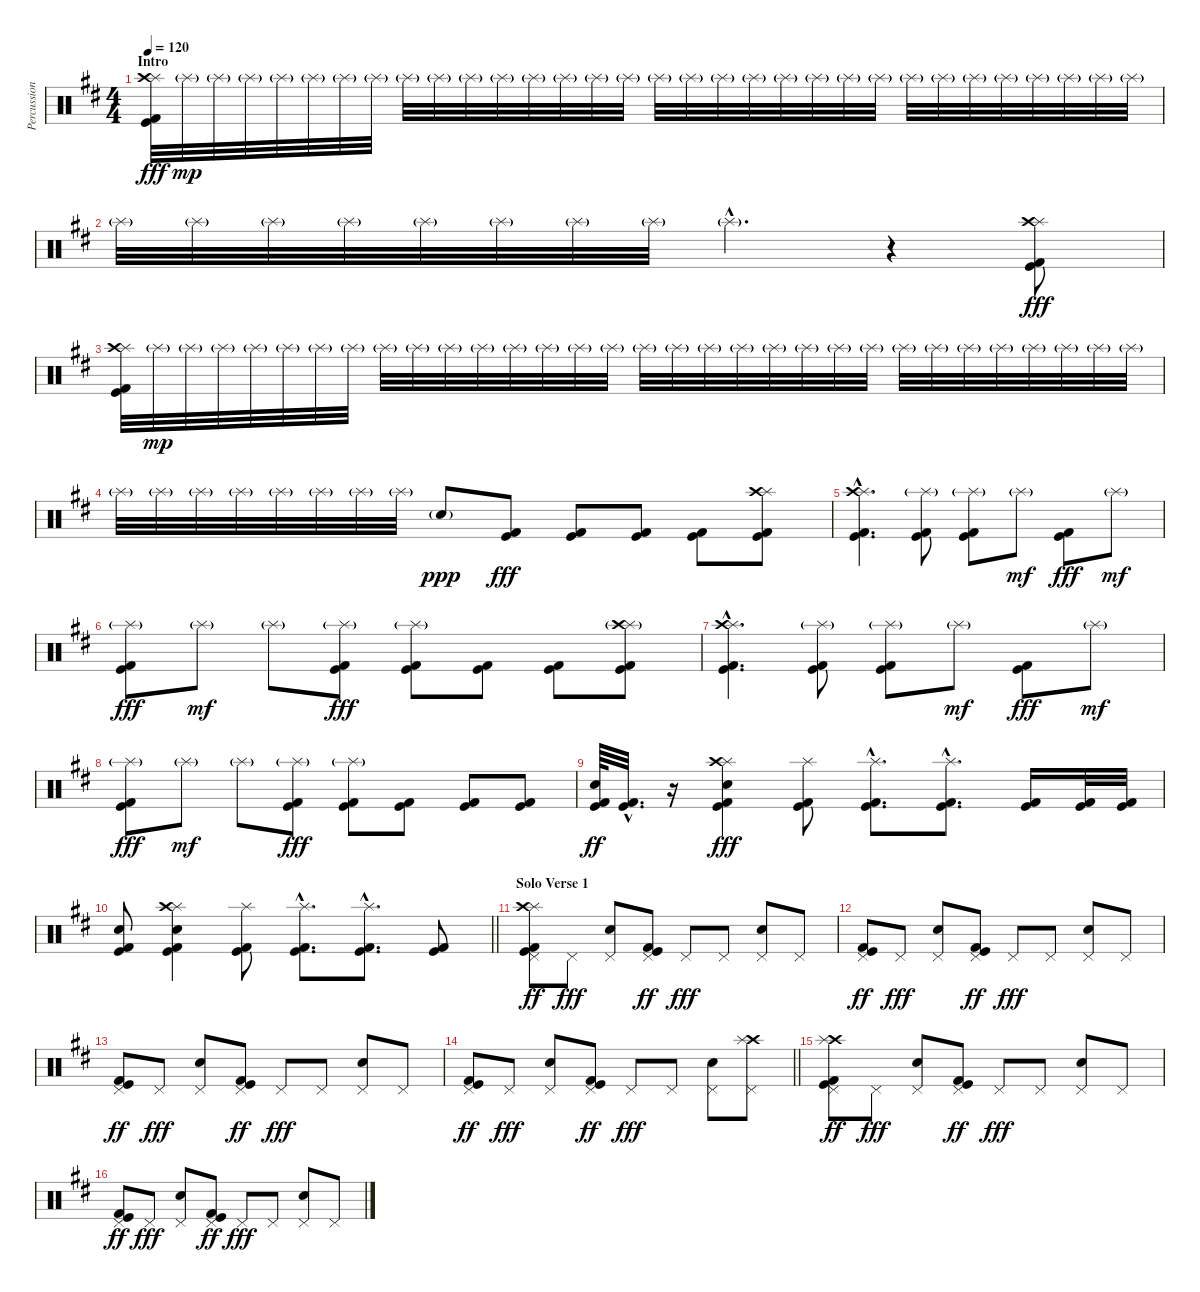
\track ("Percussion" "Percussion") {instrument percussion}
\staff {score}
\articulation defaults
\ts (4 4)
\section ("" "Intro")
\tempo 120
\clef neutral
\ks d
("Splash (hit)" "Crash high (hit)" "Kick (hit)" "Kick (hit) 2").32{dy fff} "Splash (hit)"{g}.32{dy mp} "Splash (hit)"{g}.32 "Splash (hit)"{g}.32 "Splash (hit)"{g}.32 "Splash (hit)"{g}.32 "Splash (hit)"{g}.32 "Splash (hit)"{g}.32 "Splash (hit)"{g}.32 "Splash (hit)"{g}.32 "Splash (hit)"{g}.32 "Splash (hit)"{g}.32 "Splash (hit)"{g}.32 "Splash (hit)"{g}.32 "Splash (hit)"{g}.32 "Splash (hit)"{g}.32 "Splash (hit)"{g}.32 "Splash (hit)"{g}.32 "Splash (hit)"{g}.32 "Splash (hit)"{g}.32 "Splash (hit)"{g}.32 "Splash (hit)"{g}.32 "Splash (hit)"{g}.32 "Splash (hit)"{g}.32 "Splash (hit)"{g}.32 "Splash (hit)"{g}.32 "Splash (hit)"{g}.32 "Splash (hit)"{g}.32 "Splash (hit)"{g}.32 "Splash (hit)"{g}.32 "Splash (hit)"{g}.32 "Splash (hit)"{g}.32 |
"Splash (hit)"{g}.32 "Splash (hit)"{g}.32 "Splash (hit)"{g}.32 "Splash (hit)"{g}.32 "Splash (hit)"{g}.32 "Splash (hit)"{g}.32 "Splash (hit)"{g}.32 "Splash (hit)"{g}.32 "Splash (hit)"{g hac}.4{d} r.4 ("Splash (hit)" "Crash high (hit)" "Kick (hit)" "Kick (hit) 2").8{dy fff} |
("Splash (hit)" "Crash high (hit)" "Kick (hit)" "Kick (hit) 2").32 "Splash (hit)"{g}.32{dy mp} "Splash (hit)"{g}.32 "Splash (hit)"{g}.32 "Splash (hit)"{g}.32 "Splash (hit)"{g}.32 "Splash (hit)"{g}.32 "Splash (hit)"{g}.32 "Splash (hit)"{g}.32 "Splash (hit)"{g}.32 "Splash (hit)"{g}.32 "Splash (hit)"{g}.32 "Splash (hit)"{g}.32 "Splash (hit)"{g}.32 "Splash (hit)"{g}.32 "Splash (hit)"{g}.32 "Splash (hit)"{g}.32 "Splash (hit)"{g}.32 "Splash (hit)"{g}.32 "Splash (hit)"{g}.32 "Splash (hit)"{g}.32 "Splash (hit)"{g}.32 "Splash (hit)"{g}.32 "Splash (hit)"{g}.32 "Splash (hit)"{g}.32 "Splash (hit)"{g}.32 "Splash (hit)"{g}.32 "Splash (hit)"{g}.32 "Splash (hit)"{g}.32 "Splash (hit)"{g}.32 "Splash (hit)"{g}.32 "Splash (hit)"{g}.32 |
"Splash (hit)"{g}.32 "Splash (hit)"{g}.32 "Splash (hit)"{g}.32 "Splash (hit)"{g}.32 "Splash (hit)"{g}.32 "Splash (hit)"{g}.32 "Splash (hit)"{g}.32 "Splash (hit)"{g}.32 "Snare (hit)"{g}.8{dy ppp} ("Kick (hit)" "Kick (hit) 2").8{dy fff} ("Kick (hit)" "Kick (hit) 2").8 ("Kick (hit)" "Kick (hit) 2").8 ("Kick (hit)" "Kick (hit) 2").8 ("Splash (hit)" "Crash high (hit)" "Kick (hit)" "Kick (hit) 2").8 |
("Splash (hit)"{hac} "Crash high (hit)"{hac} "Kick (hit)"{hac} "Kick (hit) 2"{hac}).4{d} ("Splash (hit)"{g} "Kick (hit)" "Kick (hit) 2").8 ("Splash (hit)"{g} "Kick (hit)" "Kick (hit) 2").8 "Splash (hit)"{g}.8{dy mf} ("Kick (hit)" "Kick (hit) 2").8{dy fff} "Splash (hit)"{g}.8{dy mf} |
("Splash (hit)"{g} "Kick (hit)" "Kick (hit) 2").8{dy fff} "Splash (hit)"{g}.8{dy mf} "Splash (hit)"{g}.8 ("Splash (hit)"{g} "Kick (hit)" "Kick (hit) 2").8{dy fff} ("Splash (hit)"{g} "Kick (hit)" "Kick (hit) 2").8 ("Kick (hit)" "Kick (hit) 2").8 ("Kick (hit)" "Kick (hit) 2").8 ("Splash (hit)"{g} "Crash high (hit)"{g} "Kick (hit)" "Kick (hit) 2").8 |
("Splash (hit)"{hac} "Crash high (hit)"{hac} "Kick (hit)"{hac} "Kick (hit) 2"{hac}).4{d} ("Splash (hit)"{g} "Kick (hit)" "Kick (hit) 2").8 ("Splash (hit)"{g} "Kick (hit)" "Kick (hit) 2").8 "Splash (hit)"{g}.8{dy mf} ("Kick (hit)" "Kick (hit) 2").8{dy fff} "Splash (hit)"{g}.8{dy mf} |
("Splash (hit)"{g} "Kick (hit)" "Kick (hit) 2").8{dy fff} "Splash (hit)"{g}.8{dy mf} "Splash (hit)"{g}.8 ("Splash (hit)"{g} "Kick (hit)" "Kick (hit) 2").8{dy fff} ("Splash (hit)"{g} "Kick (hit)" "Kick (hit) 2").8 ("Kick (hit)" "Kick (hit) 2").8 ("Kick (hit)" "Kick (hit) 2").8 ("Kick (hit)" "Kick (hit) 2").8 |
("Snare (hit) 2" "Kick (hit)" "Kick (hit) 2").64{dy ff} ("Kick (hit)"{hac} "Kick (hit) 2"{hac}).32{d} r.16 ("Splash (hit)" "Crash high (hit)" "Snare (hit) 2" "Kick (hit)" "Kick (hit) 2").4{dy fff} ("Splash (hit)" "Kick (hit)" "Kick (hit) 2").8 ("Splash (hit)"{hac} "Kick (hit)"{hac} "Kick (hit) 2"{hac}).8{d} ("Splash (hit)"{hac} "Kick (hit)"{hac} "Kick (hit) 2"{hac}).8{d} ("Kick (hit)" "Kick (hit) 2").16 ("Kick (hit)" "Kick (hit) 2").32 ("Kick (hit)" "Kick (hit) 2").32 |
\barLineRight lightlight
("Snare (hit) 2" "Kick (hit)" "Kick (hit) 2").8 ("Splash (hit)" "Crash high (hit)" "Snare (hit) 2" "Kick (hit)" "Kick (hit) 2").4 ("Splash (hit)" "Kick (hit)" "Kick (hit) 2").8 ("Splash (hit)"{hac} "Kick (hit)"{hac} "Kick (hit) 2"{hac}).8{d} ("Splash (hit)"{hac} "Kick (hit)"{hac} "Kick (hit) 2"{hac}).8{d} ("Kick (hit)" "Kick (hit) 2").8 |
\section ("" "Solo Verse 1")
("Splash (hit)" "Crash high (hit)" "Pedal Hi-Hat (hit)" "Kick (hit)" "Kick (hit) 2").8{dy ff} "Pedal Hi-Hat (hit)".8{dy fff} ("Snare (hit) 2" "Pedal Hi-Hat (hit)").8 ("Pedal Hi-Hat (hit)" "Kick (hit)" "Kick (hit) 2").8{dy ff} "Pedal Hi-Hat (hit)".8{dy fff} "Pedal Hi-Hat (hit)".8 ("Snare (hit) 2" "Pedal Hi-Hat (hit)").8 "Pedal Hi-Hat (hit)".8 |
("Pedal Hi-Hat (hit)" "Kick (hit)" "Kick (hit) 2").8{dy ff} "Pedal Hi-Hat (hit)".8{dy fff} ("Snare (hit) 2" "Pedal Hi-Hat (hit)").8 ("Pedal Hi-Hat (hit)" "Kick (hit)" "Kick (hit) 2").8{dy ff} "Pedal Hi-Hat (hit)".8{dy fff} "Pedal Hi-Hat (hit)".8 ("Snare (hit) 2" "Pedal Hi-Hat (hit)").8 "Pedal Hi-Hat (hit)".8 |
("Pedal Hi-Hat (hit)" "Kick (hit)" "Kick (hit) 2").8{dy ff} "Pedal Hi-Hat (hit)".8{dy fff} ("Snare (hit) 2" "Pedal Hi-Hat (hit)").8 ("Pedal Hi-Hat (hit)" "Kick (hit)" "Kick (hit) 2").8{dy ff} "Pedal Hi-Hat (hit)".8{dy fff} "Pedal Hi-Hat (hit)".8 ("Snare (hit) 2" "Pedal Hi-Hat (hit)").8 "Pedal Hi-Hat (hit)".8 |
\barLineRight lightlight
("Pedal Hi-Hat (hit)" "Kick (hit)" "Kick (hit) 2").8{dy ff} "Pedal Hi-Hat (hit)".8{dy fff} ("Snare (hit) 2" "Pedal Hi-Hat (hit)").8 ("Pedal Hi-Hat (hit)" "Kick (hit)" "Kick (hit) 2").8{dy ff} "Pedal Hi-Hat (hit)".8{dy fff} "Pedal Hi-Hat (hit)".8 ("Snare (hit) 2" "Pedal Hi-Hat (hit)").8 ("Crash high (hit)" "Splash (hit)" "Pedal Hi-Hat (hit)").8 |
("Crash high (hit)" "Splash (hit)" "Pedal Hi-Hat (hit)" "Kick (hit)" "Kick (hit) 2").8{dy ff} "Pedal Hi-Hat (hit)".8{dy fff} ("Snare (hit) 2" "Pedal Hi-Hat (hit)").8 ("Pedal Hi-Hat (hit)" "Kick (hit)" "Kick (hit) 2").8{dy ff} "Pedal Hi-Hat (hit)".8{dy fff} "Pedal Hi-Hat (hit)".8 ("Snare (hit) 2" "Pedal Hi-Hat (hit)").8 "Pedal Hi-Hat (hit)".8 |
("Pedal Hi-Hat (hit)" "Kick (hit)" "Kick (hit) 2").8{dy ff} "Pedal Hi-Hat (hit)".8{dy fff} ("Snare (hit) 2" "Pedal Hi-Hat (hit)").8 ("Pedal Hi-Hat (hit)" "Kick (hit)" "Kick (hit) 2").8{dy ff} "Pedal Hi-Hat (hit)".8{dy fff} "Pedal Hi-Hat (hit)".8 ("Snare (hit) 2" "Pedal Hi-Hat (hit)").8 "Pedal Hi-Hat (hit)".8
